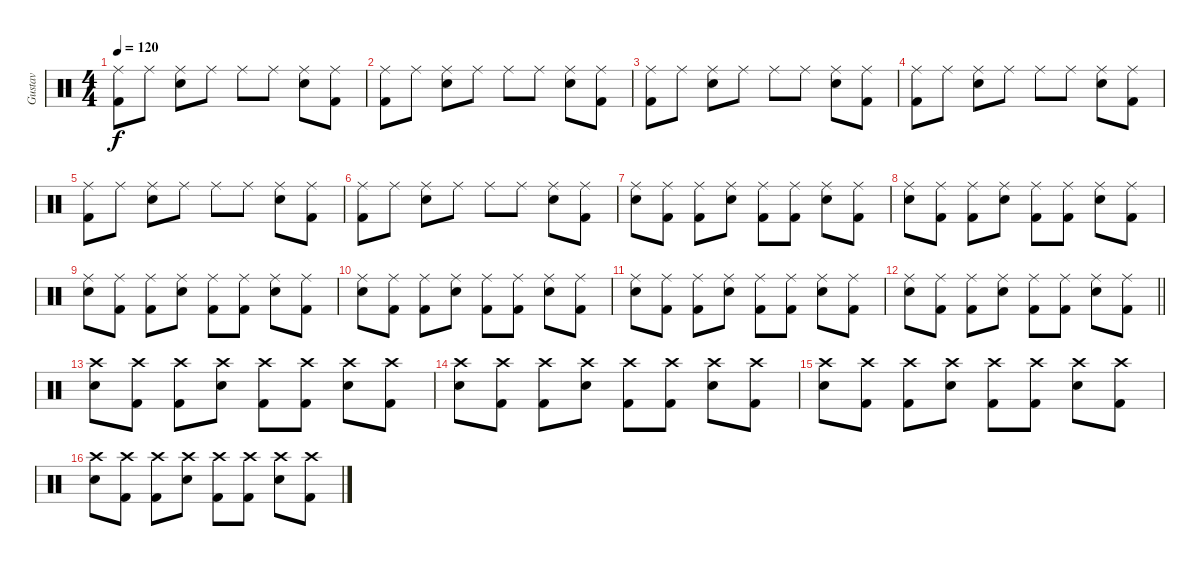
\track ("Gustav" "Gustav") {instrument percussion}
\staff {score}
\articulation defaults
\ts (4 4)
\tempo 120
\clef neutral
\ks c
("Kick (hit) 2" "Ride (middle)").8{dy f} "Ride (middle)".8 ("Ride (middle)" "Snare (hit) 2").8 "Ride (middle)".8 "Ride (middle)".8 "Ride (middle)".8 ("Snare (hit) 2" "Ride (middle)").8 ("Ride (middle)" "Kick (hit) 2").8 |
("Kick (hit) 2" "Ride (middle)").8 "Ride (middle)".8 ("Ride (middle)" "Snare (hit) 2").8 "Ride (middle)".8 "Ride (middle)".8 "Ride (middle)".8 ("Snare (hit) 2" "Ride (middle)").8 ("Ride (middle)" "Kick (hit) 2").8 |
("Kick (hit) 2" "Ride (middle)").8 "Ride (middle)".8 ("Ride (middle)" "Snare (hit) 2").8 "Ride (middle)".8 "Ride (middle)".8 "Ride (middle)".8 ("Snare (hit) 2" "Ride (middle)").8 ("Ride (middle)" "Kick (hit) 2").8 |
("Kick (hit) 2" "Ride (middle)").8 "Ride (middle)".8 ("Ride (middle)" "Snare (hit) 2").8 "Ride (middle)".8 "Ride (middle)".8 "Ride (middle)".8 ("Snare (hit) 2" "Ride (middle)").8 ("Ride (middle)" "Kick (hit) 2").8 |
("Kick (hit) 2" "Ride (middle)").8 "Ride (middle)".8 ("Ride (middle)" "Snare (hit) 2").8 "Ride (middle)".8 "Ride (middle)".8 "Ride (middle)".8 ("Snare (hit) 2" "Ride (middle)").8 ("Ride (middle)" "Kick (hit) 2").8 |
("Kick (hit) 2" "Ride (middle)").8{volume 11} "Ride (middle)".8 ("Ride (middle)" "Snare (hit) 2").8 "Ride (middle)".8 "Ride (middle)".8 "Ride (middle)".8 ("Snare (hit) 2" "Ride (middle)").8 ("Ride (middle)" "Kick (hit) 2").8 |
("Snare (hit) 2" "Ride (middle)").8 ("Kick (hit) 2" "Ride (middle)").8 ("Ride (middle)" "Kick (hit) 2").8 ("Snare (hit) 2" "Ride (middle)").8 ("Kick (hit) 2" "Ride (middle)").8 ("Kick (hit) 2" "Ride (middle)").8 ("Snare (hit) 2" "Ride (middle)").8 ("Ride (middle)" "Kick (hit) 2").8 |
("Snare (hit) 2" "Ride (middle)").8 ("Kick (hit) 2" "Ride (middle)").8 ("Ride (middle)" "Kick (hit) 2").8 ("Snare (hit) 2" "Ride (middle)").8 ("Kick (hit) 2" "Ride (middle)").8 ("Kick (hit) 2" "Ride (middle)").8 ("Snare (hit) 2" "Ride (middle)").8 ("Ride (middle)" "Kick (hit) 2").8 |
("Snare (hit) 2" "Ride (middle)").8 ("Kick (hit) 2" "Ride (middle)").8 ("Ride (middle)" "Kick (hit) 2").8 ("Snare (hit) 2" "Ride (middle)").8 ("Kick (hit) 2" "Ride (middle)").8 ("Kick (hit) 2" "Ride (middle)").8 ("Snare (hit) 2" "Ride (middle)").8 ("Ride (middle)" "Kick (hit) 2").8 |
("Snare (hit) 2" "Ride (middle)").8 ("Kick (hit) 2" "Ride (middle)").8 ("Ride (middle)" "Kick (hit) 2").8 ("Snare (hit) 2" "Ride (middle)").8 ("Kick (hit) 2" "Ride (middle)").8 ("Kick (hit) 2" "Ride (middle)").8 ("Snare (hit) 2" "Ride (middle)").8 ("Ride (middle)" "Kick (hit) 2").8 |
("Snare (hit) 2" "Ride (middle)").8 ("Kick (hit) 2" "Ride (middle)").8 ("Ride (middle)" "Kick (hit) 2").8 ("Snare (hit) 2" "Ride (middle)").8 ("Kick (hit) 2" "Ride (middle)").8 ("Kick (hit) 2" "Ride (middle)").8 ("Snare (hit) 2" "Ride (middle)").8 ("Ride (middle)" "Kick (hit) 2").8 |
\barLineRight lightlight
("Snare (hit) 2" "Ride (middle)").8 ("Kick (hit) 2" "Ride (middle)").8 ("Ride (middle)" "Kick (hit) 2").8 ("Snare (hit) 2" "Ride (middle)").8 ("Kick (hit) 2" "Ride (middle)").8 ("Kick (hit) 2" "Ride (middle)").8 ("Snare (hit) 2" "Ride (middle)").8 ("Ride (middle)" "Kick (hit) 2").8 |
("Snare (hit) 2" "Crash high (hit)").8{volume 14} ("Kick (hit) 2" "Crash high (hit)").8 ("Crash high (hit)" "Kick (hit) 2").8 ("Snare (hit) 2" "Crash high (hit)").8 ("Kick (hit) 2" "Crash high (hit)").8 ("Kick (hit) 2" "Crash high (hit)").8 ("Snare (hit) 2" "Crash high (hit)").8 ("Crash high (hit)" "Kick (hit) 2").8 |
("Snare (hit) 2" "Crash high (hit)").8 ("Kick (hit) 2" "Crash high (hit)").8 ("Crash high (hit)" "Kick (hit) 2").8 ("Snare (hit) 2" "Crash high (hit)").8 ("Kick (hit) 2" "Crash high (hit)").8 ("Kick (hit) 2" "Crash high (hit)").8 ("Snare (hit) 2" "Crash high (hit)").8 ("Crash high (hit)" "Kick (hit) 2").8 |
("Snare (hit) 2" "Crash high (hit)").8 ("Kick (hit) 2" "Crash high (hit)").8 ("Crash high (hit)" "Kick (hit) 2").8 ("Snare (hit) 2" "Crash high (hit)").8 ("Kick (hit) 2" "Crash high (hit)").8 ("Kick (hit) 2" "Crash high (hit)").8 ("Snare (hit) 2" "Crash high (hit)").8 ("Crash high (hit)" "Kick (hit) 2").8 |
("Snare (hit) 2" "Crash high (hit)").8 ("Kick (hit) 2" "Crash high (hit)").8 ("Crash high (hit)" "Kick (hit) 2").8 ("Snare (hit) 2" "Crash high (hit)").8 ("Kick (hit) 2" "Crash high (hit)").8 ("Kick (hit) 2" "Crash high (hit)").8 ("Snare (hit) 2" "Crash high (hit)").8 ("Crash high (hit)" "Kick (hit) 2").8
